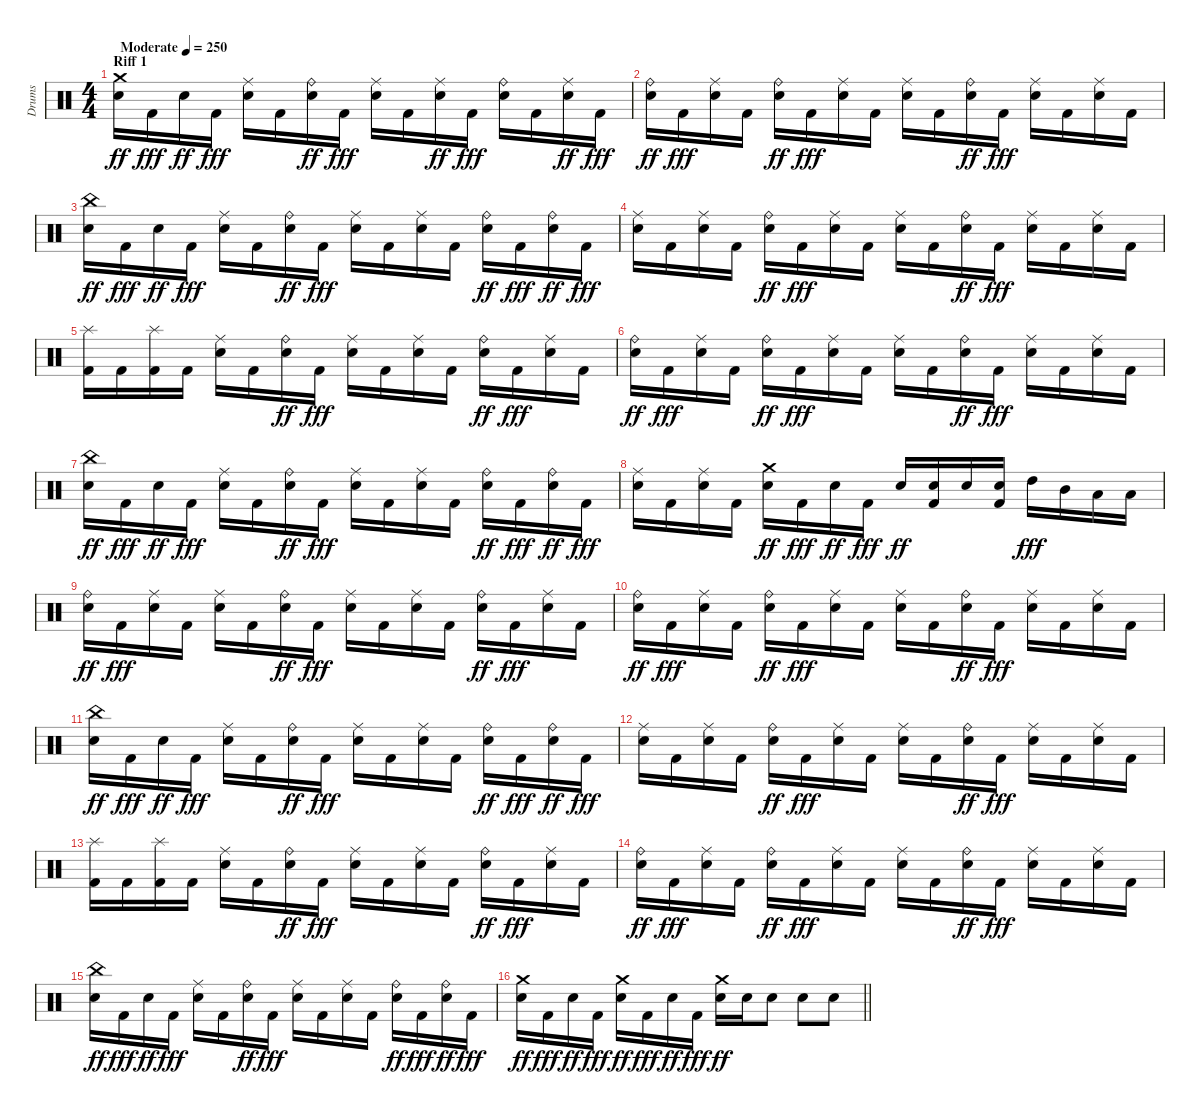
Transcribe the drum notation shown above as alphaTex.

\track ("Drums" "Drums") {instrument percussion}
\staff {score}
\articulation defaults
\ts (4 4)
\section ("" "Riff 1")
\tempo (250 "Moderate")
\clef neutral
\ks c
("Snare (hit) 2" "Crash medium (hit)").16{dy ff} "Kick (hit) 2".16{dy fff} "Snare (hit) 2".16{dy ff} "Kick (hit) 2".16{dy fff} ("Snare (hit) 2" "Ride (middle)").16 "Kick (hit) 2".16 ("Snare (hit) 2" "Ride (bell)").16{dy ff} "Kick (hit) 2".16{dy fff} ("Snare (hit) 2" "Ride (middle)").16 "Kick (hit) 2".16 ("Snare (hit) 2" "Ride (middle)").16{dy ff} "Kick (hit) 2".16{dy fff} ("Snare (hit) 2" "Ride (bell)").16 "Kick (hit) 2".16 ("Snare (hit) 2" "Ride (middle)").16{dy ff} "Kick (hit) 2".16{dy fff} |
("Snare (hit) 2" "Ride (bell)").16{dy ff} "Kick (hit) 2".16{dy fff} ("Snare (hit) 2" "Ride (middle)").16 "Kick (hit) 2".16 ("Snare (hit) 2" "Ride (bell)").16{dy ff} "Kick (hit) 2".16{dy fff} ("Snare (hit) 2" "Ride (middle)").16 "Kick (hit) 2".16 ("Snare (hit) 2" "Ride (middle)").16 "Kick (hit) 2".16 ("Snare (hit) 2" "Ride (bell)").16{dy ff} "Kick (hit) 2".16{dy fff} ("Snare (hit) 2" "Ride (middle)").16 "Kick (hit) 2".16 ("Snare (hit) 2" "Ride (middle)").16 "Kick (hit) 2".16 |
("Snare (hit) 2" "China (hit)").16{dy ff} "Kick (hit) 2".16{dy fff} "Snare (hit) 2".16{dy ff} "Kick (hit) 2".16{dy fff} ("Snare (hit) 2" "Ride (middle)").16 "Kick (hit) 2".16 ("Snare (hit) 2" "Ride (bell)").16{dy ff} "Kick (hit) 2".16{dy fff} ("Snare (hit) 2" "Ride (middle)").16 "Kick (hit) 2".16 ("Snare (hit) 2" "Ride (middle)").16 "Kick (hit) 2".16 ("Snare (hit) 2" "Ride (bell)").16{dy ff} "Kick (hit) 2".16{dy fff} ("Snare (hit) 2" "Ride (bell)").16{dy ff} "Kick (hit) 2".16{dy fff} |
("Snare (hit) 2" "Ride (middle)").16 "Kick (hit) 2".16 ("Snare (hit) 2" "Ride (middle)").16 "Kick (hit) 2".16 ("Snare (hit) 2" "Ride (bell)").16{dy ff} "Kick (hit) 2".16{dy fff} ("Snare (hit) 2" "Ride (middle)").16 "Kick (hit) 2".16 ("Snare (hit) 2" "Ride (middle)").16 "Kick (hit) 2".16 ("Snare (hit) 2" "Ride (bell)").16{dy ff} "Kick (hit) 2".16{dy fff} ("Snare (hit) 2" "Ride (middle)").16 "Kick (hit) 2".16 ("Snare (hit) 2" "Ride (middle)").16 "Kick (hit) 2".16 |
("Kick (hit) 2" "Splash (hit)").16 "Kick (hit) 2".16 ("Kick (hit) 2" "Splash (hit)").16 "Kick (hit) 2".16 ("Snare (hit) 2" "Ride (middle)").16 "Kick (hit) 2".16 ("Snare (hit) 2" "Ride (bell)").16{dy ff} "Kick (hit) 2".16{dy fff} ("Snare (hit) 2" "Ride (middle)").16 "Kick (hit) 2".16 ("Snare (hit) 2" "Ride (middle)").16 "Kick (hit) 2".16 ("Snare (hit) 2" "Ride (bell)").16{dy ff} "Kick (hit) 2".16{dy fff} ("Snare (hit) 2" "Ride (middle)").16 "Kick (hit) 2".16 |
("Snare (hit) 2" "Ride (bell)").16{dy ff} "Kick (hit) 2".16{dy fff} ("Snare (hit) 2" "Ride (middle)").16 "Kick (hit) 2".16 ("Snare (hit) 2" "Ride (bell)").16{dy ff} "Kick (hit) 2".16{dy fff} ("Snare (hit) 2" "Ride (middle)").16 "Kick (hit) 2".16 ("Snare (hit) 2" "Ride (middle)").16 "Kick (hit) 2".16 ("Snare (hit) 2" "Ride (bell)").16{dy ff} "Kick (hit) 2".16{dy fff} ("Snare (hit) 2" "Ride (middle)").16 "Kick (hit) 2".16 ("Snare (hit) 2" "Ride (middle)").16 "Kick (hit) 2".16 |
("Snare (hit) 2" "China (hit)").16{dy ff} "Kick (hit) 2".16{dy fff} "Snare (hit) 2".16{dy ff} "Kick (hit) 2".16{dy fff} ("Snare (hit) 2" "Ride (middle)").16 "Kick (hit) 2".16 ("Snare (hit) 2" "Ride (bell)").16{dy ff} "Kick (hit) 2".16{dy fff} ("Snare (hit) 2" "Ride (middle)").16 "Kick (hit) 2".16 ("Snare (hit) 2" "Ride (middle)").16 "Kick (hit) 2".16 ("Snare (hit) 2" "Ride (bell)").16{dy ff} "Kick (hit) 2".16{dy fff} ("Snare (hit) 2" "Ride (bell)").16{dy ff} "Kick (hit) 2".16{dy fff} |
("Snare (hit) 2" "Ride (middle)").16 "Kick (hit) 2".16 ("Snare (hit) 2" "Ride (middle)").16 "Kick (hit) 2".16 ("Snare (hit) 2" "Crash medium (hit)").16{dy ff} "Kick (hit) 2".16{dy fff} "Snare (hit) 2".16{dy ff} "Kick (hit) 2".16{dy fff} "Snare (hit) 2".16{dy ff} ("Kick (hit) 2" "Snare (hit) 2").16 "Snare (hit) 2".16 ("Kick (hit) 2" "Snare (hit) 2").16 "High Tom (hit)".16{dy fff} "Mid Tom (hit)".16 "Low Tom (hit)".16 "Low Tom (hit)".16 |
("Snare (hit) 2" "Ride (bell)").16{dy ff} "Kick (hit) 2".16{dy fff} ("Snare (hit) 2" "Ride (middle)").16 "Kick (hit) 2".16 ("Snare (hit) 2" "Ride (middle)").16 "Kick (hit) 2".16 ("Snare (hit) 2" "Ride (bell)").16{dy ff} "Kick (hit) 2".16{dy fff} ("Snare (hit) 2" "Ride (middle)").16 "Kick (hit) 2".16 ("Snare (hit) 2" "Ride (middle)").16 "Kick (hit) 2".16 ("Snare (hit) 2" "Ride (bell)").16{dy ff} "Kick (hit) 2".16{dy fff} ("Snare (hit) 2" "Ride (middle)").16 "Kick (hit) 2".16 |
("Snare (hit) 2" "Ride (bell)").16{dy ff} "Kick (hit) 2".16{dy fff} ("Snare (hit) 2" "Ride (middle)").16 "Kick (hit) 2".16 ("Snare (hit) 2" "Ride (bell)").16{dy ff} "Kick (hit) 2".16{dy fff} ("Snare (hit) 2" "Ride (middle)").16 "Kick (hit) 2".16 ("Snare (hit) 2" "Ride (middle)").16 "Kick (hit) 2".16 ("Snare (hit) 2" "Ride (bell)").16{dy ff} "Kick (hit) 2".16{dy fff} ("Snare (hit) 2" "Ride (middle)").16 "Kick (hit) 2".16 ("Snare (hit) 2" "Ride (middle)").16 "Kick (hit) 2".16 |
("Snare (hit) 2" "China (hit)").16{dy ff} "Kick (hit) 2".16{dy fff} "Snare (hit) 2".16{dy ff} "Kick (hit) 2".16{dy fff} ("Snare (hit) 2" "Ride (middle)").16 "Kick (hit) 2".16 ("Snare (hit) 2" "Ride (bell)").16{dy ff} "Kick (hit) 2".16{dy fff} ("Snare (hit) 2" "Ride (middle)").16 "Kick (hit) 2".16 ("Snare (hit) 2" "Ride (middle)").16 "Kick (hit) 2".16 ("Snare (hit) 2" "Ride (bell)").16{dy ff} "Kick (hit) 2".16{dy fff} ("Snare (hit) 2" "Ride (bell)").16{dy ff} "Kick (hit) 2".16{dy fff} |
("Snare (hit) 2" "Ride (middle)").16 "Kick (hit) 2".16 ("Snare (hit) 2" "Ride (middle)").16 "Kick (hit) 2".16 ("Snare (hit) 2" "Ride (bell)").16{dy ff} "Kick (hit) 2".16{dy fff} ("Snare (hit) 2" "Ride (middle)").16 "Kick (hit) 2".16 ("Snare (hit) 2" "Ride (middle)").16 "Kick (hit) 2".16 ("Snare (hit) 2" "Ride (bell)").16{dy ff} "Kick (hit) 2".16{dy fff} ("Snare (hit) 2" "Ride (middle)").16 "Kick (hit) 2".16 ("Snare (hit) 2" "Ride (middle)").16 "Kick (hit) 2".16 |
("Kick (hit) 2" "Splash (hit)").16 "Kick (hit) 2".16 ("Kick (hit) 2" "Splash (hit)").16 "Kick (hit) 2".16 ("Snare (hit) 2" "Ride (middle)").16 "Kick (hit) 2".16 ("Snare (hit) 2" "Ride (bell)").16{dy ff} "Kick (hit) 2".16{dy fff} ("Snare (hit) 2" "Ride (middle)").16 "Kick (hit) 2".16 ("Snare (hit) 2" "Ride (middle)").16 "Kick (hit) 2".16 ("Snare (hit) 2" "Ride (bell)").16{dy ff} "Kick (hit) 2".16{dy fff} ("Snare (hit) 2" "Ride (middle)").16 "Kick (hit) 2".16 |
("Snare (hit) 2" "Ride (bell)").16{dy ff} "Kick (hit) 2".16{dy fff} ("Snare (hit) 2" "Ride (middle)").16 "Kick (hit) 2".16 ("Snare (hit) 2" "Ride (bell)").16{dy ff} "Kick (hit) 2".16{dy fff} ("Snare (hit) 2" "Ride (middle)").16 "Kick (hit) 2".16 ("Snare (hit) 2" "Ride (middle)").16 "Kick (hit) 2".16 ("Snare (hit) 2" "Ride (bell)").16{dy ff} "Kick (hit) 2".16{dy fff} ("Snare (hit) 2" "Ride (middle)").16 "Kick (hit) 2".16 ("Snare (hit) 2" "Ride (middle)").16 "Kick (hit) 2".16 |
("Snare (hit) 2" "China (hit)").16{dy ff} "Kick (hit) 2".16{dy fff} "Snare (hit) 2".16{dy ff} "Kick (hit) 2".16{dy fff} ("Snare (hit) 2" "Ride (middle)").16 "Kick (hit) 2".16 ("Snare (hit) 2" "Ride (bell)").16{dy ff} "Kick (hit) 2".16{dy fff} ("Snare (hit) 2" "Ride (middle)").16 "Kick (hit) 2".16 ("Snare (hit) 2" "Ride (middle)").16 "Kick (hit) 2".16 ("Snare (hit) 2" "Ride (bell)").16{dy ff} "Kick (hit) 2".16{dy fff} ("Snare (hit) 2" "Ride (bell)").16{dy ff} "Kick (hit) 2".16{dy fff} |
\barLineRight lightlight
("Snare (hit) 2" "Crash medium (hit)").16{dy ff} "Kick (hit) 2".16{dy fff} "Snare (hit) 2".16{dy ff} "Kick (hit) 2".16{dy fff} ("Snare (hit) 2" "Crash medium (hit)").16{dy ff} "Kick (hit) 2".16{dy fff} "Snare (hit) 2".16{dy ff} "Kick (hit) 2".16{dy fff} ("Snare (hit) 2" "Crash medium (hit)").16{dy ff} "Snare (hit) 2".16 "Snare (hit) 2".8 "Snare (hit) 2".8 "Snare (hit) 2".8
